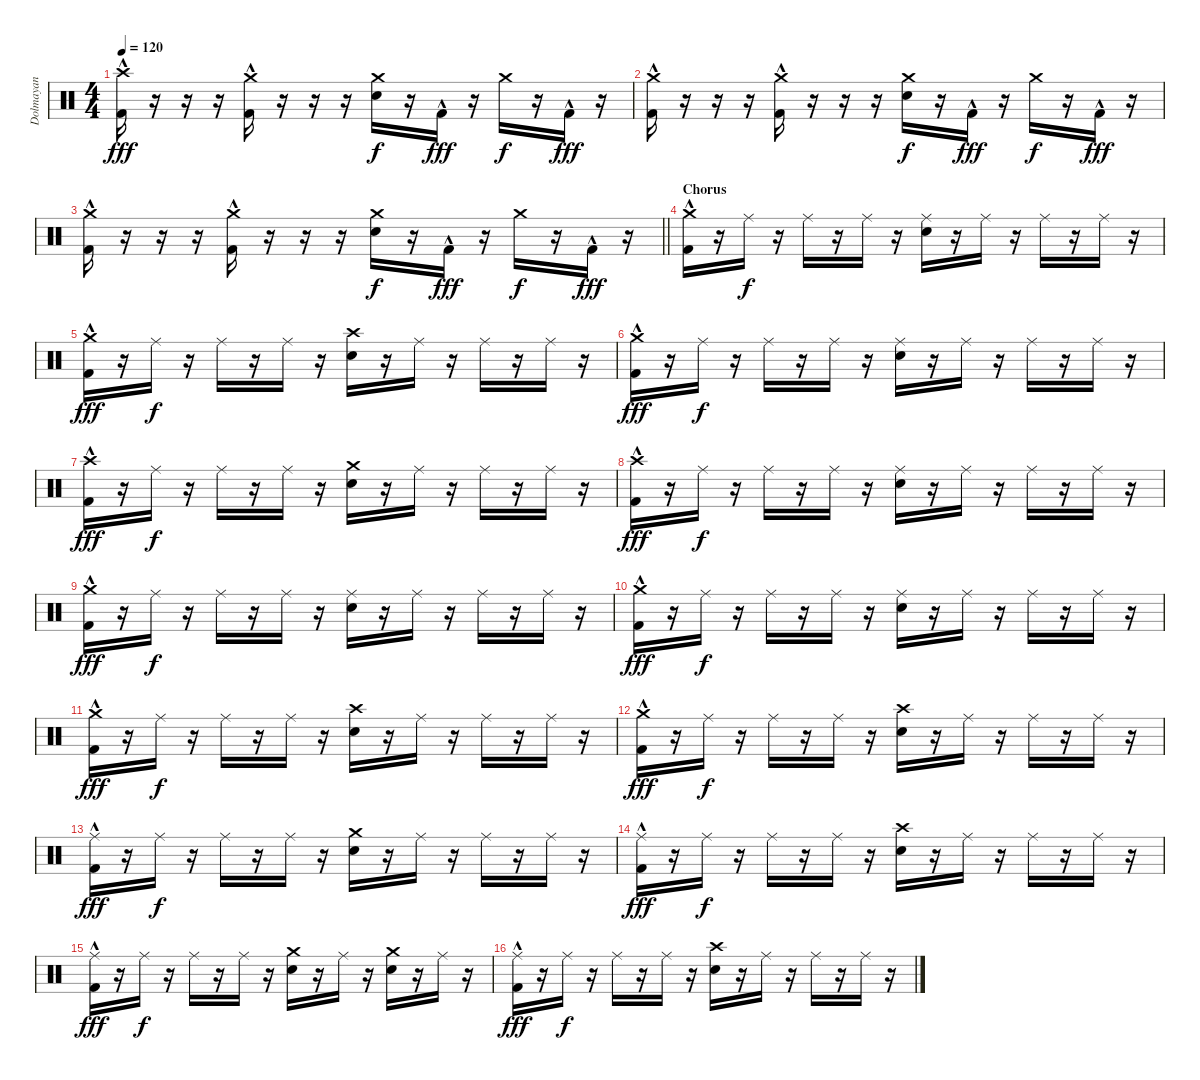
\track ("Dolmayan" "Dolmayan") {instrument percussion}
\staff {score}
\articulation defaults
\ts (4 4)
\tempo 120
\clef neutral
\ks c
("Crash high (hit)" "Kick (hit) 2"{hac}).16{dy fff} r.16 r.16 r.16 ("Crash medium (hit)" "Kick (hit) 2"{hac}).16 r.16 r.16 r.16 ("Crash medium (hit)" "Snare (hit) 2").16{dy f} r.16 "Kick (hit) 2"{hac}.16{dy fff} r.16 "Crash medium (hit)".16{dy f} r.16 "Kick (hit) 2"{hac}.16{dy fff} r.16 |
("Crash medium (hit)" "Kick (hit) 2"{hac}).16 r.16 r.16 r.16 ("Crash medium (hit)" "Kick (hit) 2"{hac}).16 r.16 r.16 r.16 ("Crash medium (hit)" "Snare (hit) 2").16{dy f} r.16 "Kick (hit) 2"{hac}.16{dy fff} r.16 "Crash medium (hit)".16{dy f} r.16 "Kick (hit) 2"{hac}.16{dy fff} r.16 |
\barLineRight lightlight
("Crash medium (hit)" "Kick (hit) 2"{hac}).16 r.16 r.16 r.16 ("Crash medium (hit)" "Kick (hit) 2"{hac}).16 r.16 r.16 r.16 ("Crash medium (hit)" "Snare (hit) 2").16{dy f} r.16 "Kick (hit) 2"{hac}.16{dy fff} r.16 "Crash medium (hit)".16{dy f} r.16 "Kick (hit) 2"{hac}.16{dy fff} r.16 |
\section ("" "Chorus")
("Crash medium (hit)" "Kick (hit) 2"{hac}).16 r.16 "Ride (middle)".16{dy f} r.16 "Ride (middle)".16 r.16 "Ride (middle)".16 r.16 ("Ride (middle)" "Snare (hit) 2").16 r.16 "Ride (middle)".16 r.16 "Ride (middle)".16 r.16 "Ride (middle)".16 r.16 |
("Crash medium (hit)" "Kick (hit) 2"{hac}).16{dy fff} r.16 "Ride (middle)".16{dy f} r.16 "Ride (middle)".16 r.16 "Ride (middle)".16 r.16 ("Crash high (hit)" "Snare (hit) 2").16 r.16 "Ride (middle)".16 r.16 "Ride (middle)".16 r.16 "Ride (middle)".16 r.16 |
("Crash medium (hit)" "Kick (hit) 2"{hac}).16{dy fff} r.16 "Ride (middle)".16{dy f} r.16 "Ride (middle)".16 r.16 "Ride (middle)".16 r.16 ("Ride (middle)" "Snare (hit) 2").16 r.16 "Ride (middle)".16 r.16 "Ride (middle)".16 r.16 "Ride (middle)".16 r.16 |
("Crash high (hit)" "Kick (hit) 2"{hac}).16{dy fff} r.16 "Ride (middle)".16{dy f} r.16 "Ride (middle)".16 r.16 "Ride (middle)".16 r.16 ("Crash medium (hit)" "Snare (hit) 2").16 r.16 "Ride (middle)".16 r.16 "Ride (middle)".16 r.16 "Ride (middle)".16 r.16 |
("Crash high (hit)" "Kick (hit) 2"{hac}).16{dy fff} r.16 "Ride (middle)".16{dy f} r.16 "Ride (middle)".16 r.16 "Ride (middle)".16 r.16 ("Ride (middle)" "Snare (hit) 2").16 r.16 "Ride (middle)".16 r.16 "Ride (middle)".16 r.16 "Ride (middle)".16 r.16 |
("Crash medium (hit)" "Kick (hit) 2"{hac}).16{dy fff} r.16 "Ride (middle)".16{dy f} r.16 "Ride (middle)".16 r.16 "Ride (middle)".16 r.16 ("Ride (middle)" "Snare (hit) 2").16 r.16 "Ride (middle)".16 r.16 "Ride (middle)".16 r.16 "Ride (middle)".16 r.16 |
("Crash medium (hit)" "Kick (hit) 2"{hac}).16{dy fff} r.16 "Ride (middle)".16{dy f} r.16 "Ride (middle)".16 r.16 "Ride (middle)".16 r.16 ("Ride (middle)" "Snare (hit) 2").16 r.16 "Ride (middle)".16 r.16 "Ride (middle)".16 r.16 "Ride (middle)".16 r.16 |
("Crash medium (hit)" "Kick (hit) 2"{hac}).16{dy fff} r.16 "Ride (middle)".16{dy f} r.16 "Ride (middle)".16 r.16 "Ride (middle)".16 r.16 ("Crash high (hit)" "Snare (hit) 2").16 r.16 "Ride (middle)".16 r.16 "Ride (middle)".16 r.16 "Ride (middle)".16 r.16 |
("Crash medium (hit)" "Kick (hit) 2"{hac}).16{dy fff} r.16 "Ride (middle)".16{dy f} r.16 "Ride (middle)".16 r.16 "Ride (middle)".16 r.16 ("Crash high (hit)" "Snare (hit) 2").16 r.16 "Ride (middle)".16 r.16 "Ride (middle)".16 r.16 "Ride (middle)".16 r.16 |
("Ride (middle)" "Kick (hit) 2"{hac}).16{dy fff} r.16 "Ride (middle)".16{dy f} r.16 "Ride (middle)".16 r.16 "Ride (middle)".16 r.16 ("Crash medium (hit)" "Snare (hit) 2").16 r.16 "Ride (middle)".16 r.16 "Ride (middle)".16 r.16 "Ride (middle)".16 r.16 |
("Ride (middle)" "Kick (hit) 2"{hac}).16{dy fff} r.16 "Ride (middle)".16{dy f} r.16 "Ride (middle)".16 r.16 "Ride (middle)".16 r.16 ("Crash high (hit)" "Snare (hit) 2").16 r.16 "Ride (middle)".16 r.16 "Ride (middle)".16 r.16 "Ride (middle)".16 r.16 |
("Ride (middle)" "Kick (hit) 2"{hac}).16{dy fff} r.16 "Ride (middle)".16{dy f} r.16 "Ride (middle)".16 r.16 "Ride (middle)".16 r.16 ("Crash medium (hit)" "Snare (hit) 2").16 r.16 "Ride (middle)".16 r.16 ("Crash medium (hit)" "Snare (hit) 2").16 r.16 "Ride (middle)".16 r.16 |
("Ride (middle)" "Kick (hit) 2"{hac}).16{dy fff} r.16 "Ride (middle)".16{dy f} r.16 "Ride (middle)".16 r.16 "Ride (middle)".16 r.16 ("Crash high (hit)" "Snare (hit) 2").16 r.16 "Ride (middle)".16 r.16 "Ride (middle)".16 r.16 "Ride (middle)".16 r.16
